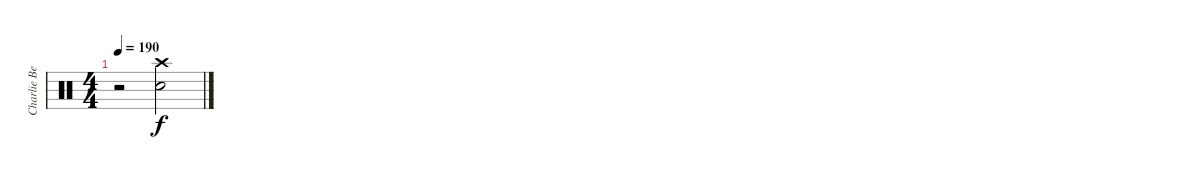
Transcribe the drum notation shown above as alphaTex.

\track ("Charlie Benante" "Charlie Be") {instrument percussion}
\staff {score}
\articulation defaults
\ts (4 4)
\tempo 190
\clef neutral
\ks c
r.2{dy mp} ("Crash high (hit)" "Electric Snare (hit)").2{dy f}
